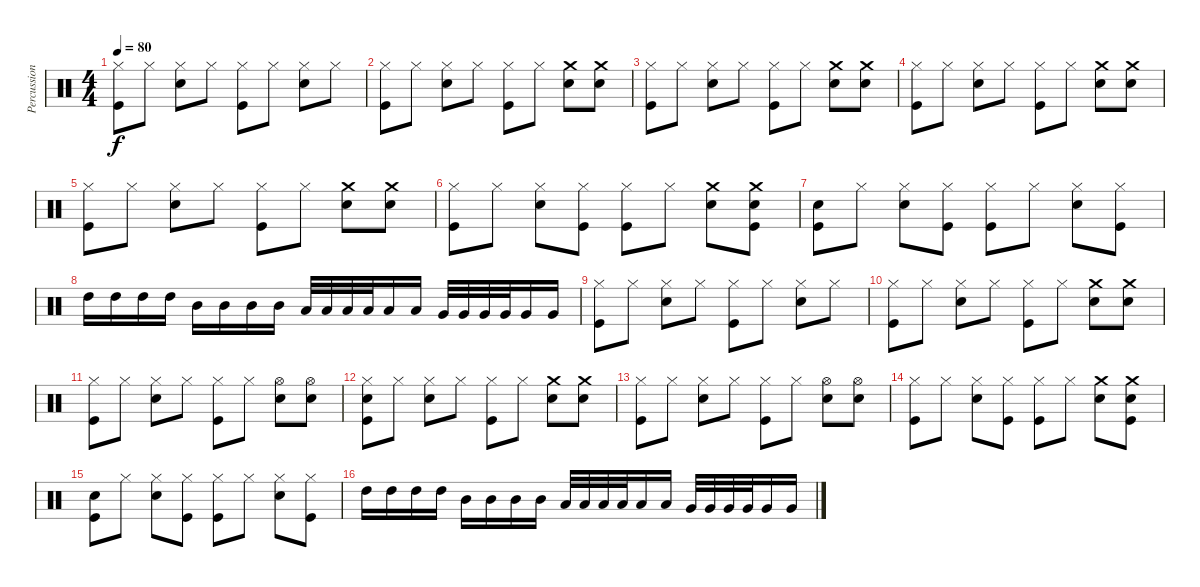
\track ("Percussions" "Percussion") {instrument percussion}
\staff {score}
\articulation defaults
\ts (4 4)
\tempo 80
\clef neutral
\ks c
("Hi-Hat (closed)" "Kick (hit)").8{dy f} "Hi-Hat (closed)".8 ("Hi-Hat (closed)" "Electric Snare (hit)").8 "Hi-Hat (closed)".8 ("Hi-Hat (closed)" "Kick (hit)").8 "Hi-Hat (closed)".8 ("Hi-Hat (closed)" "Electric Snare (hit)").8 "Hi-Hat (closed)".8 |
("Hi-Hat (closed)" "Kick (hit)").8 "Hi-Hat (closed)".8 ("Hi-Hat (closed)" "Electric Snare (hit)").8 "Hi-Hat (closed)".8 ("Hi-Hat (closed)" "Kick (hit)").8 "Hi-Hat (closed)".8 ("Crash medium (hit)" "Electric Snare (hit)").8 ("Crash medium (hit)" "Electric Snare (hit)").8 |
("Hi-Hat (closed)" "Kick (hit)").8 "Hi-Hat (closed)".8 ("Hi-Hat (closed)" "Electric Snare (hit)").8 "Hi-Hat (closed)".8 ("Hi-Hat (closed)" "Kick (hit)").8 "Hi-Hat (closed)".8 ("Crash medium (hit)" "Electric Snare (hit)").8 ("Crash medium (hit)" "Electric Snare (hit)").8 |
("Hi-Hat (closed)" "Kick (hit)").8 "Hi-Hat (closed)".8 ("Hi-Hat (closed)" "Electric Snare (hit)").8 "Hi-Hat (closed)".8 ("Hi-Hat (closed)" "Kick (hit)").8 "Hi-Hat (closed)".8 ("Crash medium (hit)" "Electric Snare (hit)").8 ("Crash medium (hit)" "Electric Snare (hit)").8 |
("Hi-Hat (closed)" "Kick (hit)").8 "Hi-Hat (closed)".8 ("Hi-Hat (closed)" "Electric Snare (hit)").8 "Hi-Hat (closed)".8 ("Hi-Hat (closed)" "Kick (hit)").8 "Hi-Hat (closed)".8 ("Crash medium (hit)" "Electric Snare (hit)").8 ("Crash medium (hit)" "Electric Snare (hit)").8 |
("Hi-Hat (closed)" "Kick (hit)").8 "Hi-Hat (closed)".8 ("Hi-Hat (closed)" "Electric Snare (hit)").8 ("Hi-Hat (closed)" "Kick (hit)").8 ("Hi-Hat (closed)" "Kick (hit)").8 "Hi-Hat (closed)".8 ("Crash medium (hit)" "Electric Snare (hit)").8 ("Crash medium (hit)" "Electric Snare (hit)" "Kick (hit)").8 |
("Snare (hit) 2" "Kick (hit)").8 "Hi-Hat (closed)".8 ("Hi-Hat (closed)" "Electric Snare (hit)").8 ("Hi-Hat (closed)" "Kick (hit)").8 ("Hi-Hat (closed)" "Kick (hit)").8 "Hi-Hat (closed)".8 ("Hi-Hat (closed)" "Electric Snare (hit)").8 ("Hi-Hat (closed)" "Kick (hit)").8 |
"High Tom (hit)".16 "High Tom (hit)".16 "High Tom (hit)".16 "High Tom (hit)".16 "Mid Tom (hit)".16 "Mid Tom (hit)".16 "Mid Tom (hit)".16 "Mid Tom (hit)".16 "Low Tom (hit)".32 "Low Tom (hit)".32 "Low Tom (hit)".32 "Low Tom (hit)".32 "Low Tom (hit)".16 "Low Tom (hit)".16 "Very Low Tom (hit)".32 "Very Low Tom (hit)".32 "Very Low Tom (hit)".32 "Very Low Tom (hit)".32 "Very Low Tom (hit)".16 "Very Low Tom (hit)".16 |
("Hi-Hat (closed)" "Kick (hit)").8 "Hi-Hat (closed)".8 ("Hi-Hat (closed)" "Electric Snare (hit)").8 "Hi-Hat (closed)".8 ("Hi-Hat (closed)" "Kick (hit)").8 "Hi-Hat (closed)".8 ("Hi-Hat (closed)" "Electric Snare (hit)").8 "Hi-Hat (closed)".8 |
("Hi-Hat (closed)" "Kick (hit)").8 "Hi-Hat (closed)".8 ("Hi-Hat (closed)" "Electric Snare (hit)").8 "Hi-Hat (closed)".8 ("Hi-Hat (closed)" "Kick (hit)").8 "Hi-Hat (closed)".8 ("Crash medium (hit)" "Electric Snare (hit)").8 ("Crash medium (hit)" "Electric Snare (hit)").8 |
("Hi-Hat (closed)" "Kick (hit)").8 "Hi-Hat (closed)".8 ("Hi-Hat (closed)" "Electric Snare (hit)").8 "Hi-Hat (closed)".8 ("Hi-Hat (closed)" "Kick (hit)").8 "Hi-Hat (closed)".8 ("Hi-Hat (open)" "Electric Snare (hit)").8 ("Hi-Hat (open)" "Electric Snare (hit)").8 |
("Hi-Hat (closed)" "Electric Snare (hit)" "Kick (hit)").8 "Hi-Hat (closed)".8 ("Hi-Hat (closed)" "Electric Snare (hit)").8 "Hi-Hat (closed)".8 ("Hi-Hat (closed)" "Kick (hit)").8 "Hi-Hat (closed)".8 ("Crash medium (hit)" "Electric Snare (hit)").8 ("Crash medium (hit)" "Electric Snare (hit)").8 |
("Hi-Hat (closed)" "Kick (hit)").8 "Hi-Hat (closed)".8 ("Hi-Hat (closed)" "Electric Snare (hit)").8 "Hi-Hat (closed)".8 ("Hi-Hat (closed)" "Kick (hit)").8 "Hi-Hat (closed)".8 ("Hi-Hat (open)" "Electric Snare (hit)").8 ("Hi-Hat (open)" "Electric Snare (hit)").8 |
("Hi-Hat (closed)" "Kick (hit)").8 "Hi-Hat (closed)".8 ("Hi-Hat (closed)" "Electric Snare (hit)").8 ("Hi-Hat (closed)" "Kick (hit)").8 ("Hi-Hat (closed)" "Kick (hit)").8 "Hi-Hat (closed)".8 ("Crash medium (hit)" "Electric Snare (hit)").8 ("Crash medium (hit)" "Electric Snare (hit)" "Kick (hit)").8 |
("Snare (hit) 2" "Kick (hit)").8 "Hi-Hat (closed)".8 ("Hi-Hat (closed)" "Electric Snare (hit)").8 ("Hi-Hat (closed)" "Kick (hit)").8 ("Hi-Hat (closed)" "Kick (hit)").8 "Hi-Hat (closed)".8 ("Hi-Hat (closed)" "Electric Snare (hit)").8 ("Hi-Hat (closed)" "Kick (hit)").8 |
"High Tom (hit)".16 "High Tom (hit)".16 "High Tom (hit)".16 "High Tom (hit)".16 "Mid Tom (hit)".16 "Mid Tom (hit)".16 "Mid Tom (hit)".16 "Mid Tom (hit)".16 "Low Tom (hit)".32 "Low Tom (hit)".32 "Low Tom (hit)".32 "Low Tom (hit)".32 "Low Tom (hit)".16 "Low Tom (hit)".16 "Very Low Tom (hit)".32 "Very Low Tom (hit)".32 "Very Low Tom (hit)".32 "Very Low Tom (hit)".32 "Very Low Tom (hit)".16 "Very Low Tom (hit)".16
